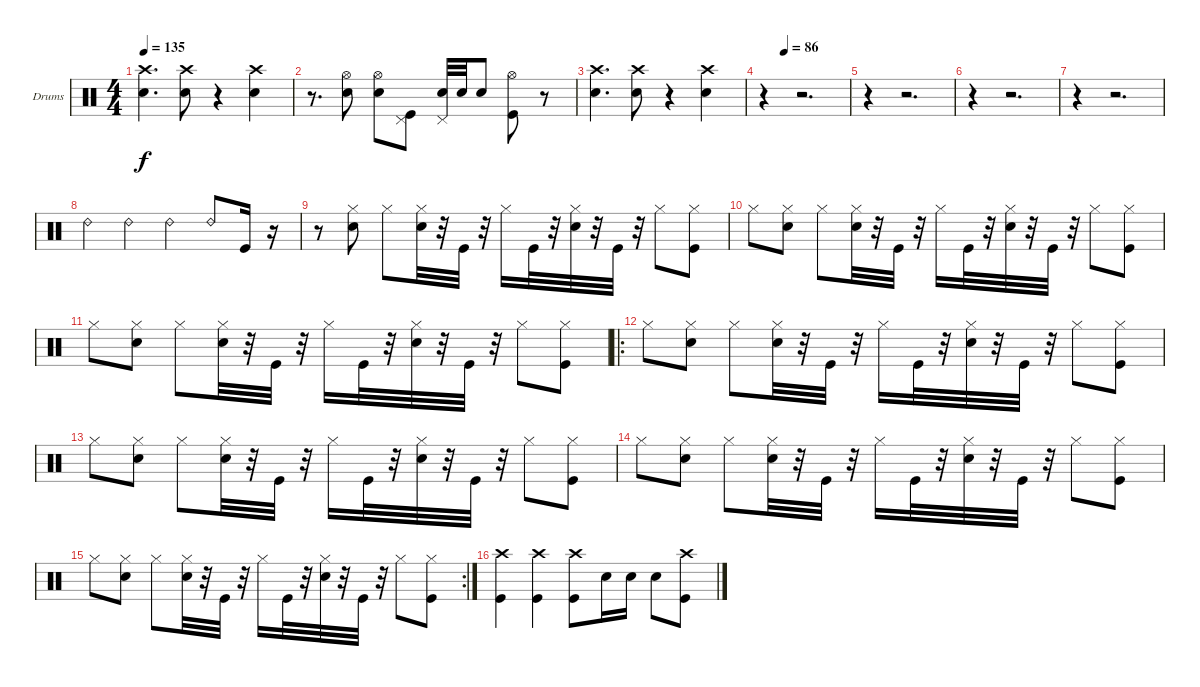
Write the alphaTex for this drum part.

\bracketExtendMode groupsimilarinstruments
\firstSystemTrackNameOrientation horizontal
\otherSystemsTrackNameOrientation horizontal
\track ("Drumkit" "Drums") {instrument percussion}
\staff {score}
\articulation defaults
\ts (4 4)
\tempo 135
\clef neutral
\ks c
("Crash high (hit)" "Snare (hit) 2").4{d dy f} ("Crash high (hit)" "Snare (hit) 2").8 r.4 ("Crash high (hit)" "Snare (hit) 2").4 |
r.8{d} ("Hi-Hat (open)" "Snare (hit) 2").8 ("Hi-Hat (open)" "Snare (hit) 2").8 ("Pedal Hi-Hat (hit)" "Kick (hit)").8 ("Pedal Hi-Hat (hit)" "Snare (hit) 2").32 "Snare (hit) 2".32 "Snare (hit) 2".8 ("Hi-Hat (open)" "Kick (hit)").8 r.8 |
("Crash high (hit)" "Snare (hit) 2").4{d} ("Crash high (hit)" "Snare (hit) 2").8 r.4 ("Crash high (hit)" "Snare (hit) 2").4 |
\tempo (86 0.25)
r.4 r.2{d} |
r.4 r.2{d} |
r.4 r.2{d} |
r.4 r.2{d} |
"Ride (bell) 2".4 "Ride (bell) 2".4 "Ride (bell) 2".4 "Ride (bell) 2".8 "Kick (hit)".16 r.16 |
r.8 ("Hi-Hat (closed)" "Snare (hit) 2").8 "Hi-Hat (closed)".8 ("Hi-Hat (closed)" "Snare (hit) 2").32 r.32 "Kick (hit)".32 r.32 "Hi-Hat (closed)".16 "Kick (hit)".32 r.32 ("Hi-Hat (closed)" "Snare (hit) 2").32 r.32 "Kick (hit)".32 r.32 "Hi-Hat (closed)".8 ("Hi-Hat (closed)" "Kick (hit)").8 |
"Hi-Hat (closed)".8 ("Hi-Hat (closed)" "Snare (hit) 2").8 "Hi-Hat (closed)".8 ("Hi-Hat (closed)" "Snare (hit) 2").32 r.32 "Kick (hit)".32 r.32 "Hi-Hat (closed)".16 "Kick (hit)".32 r.32 ("Hi-Hat (closed)" "Snare (hit) 2").32 r.32 "Kick (hit)".32 r.32 "Hi-Hat (closed)".8 ("Hi-Hat (closed)" "Kick (hit)").8 |
"Hi-Hat (closed)".8 ("Hi-Hat (closed)" "Snare (hit) 2").8 "Hi-Hat (closed)".8 ("Hi-Hat (closed)" "Snare (hit) 2").32 r.32 "Kick (hit)".32 r.32 "Hi-Hat (closed)".16 "Kick (hit)".32 r.32 ("Hi-Hat (closed)" "Snare (hit) 2").32 r.32 "Kick (hit)".32 r.32 "Hi-Hat (closed)".8 ("Hi-Hat (closed)" "Kick (hit)").8 |
\ro "Hi-Hat (closed)".8
("Hi-Hat (closed)" "Snare (hit) 2").8 "Hi-Hat (closed)".8 ("Hi-Hat (closed)" "Snare (hit) 2").32 r.32 "Kick (hit)".32 r.32 "Hi-Hat (closed)".16 "Kick (hit)".32 r.32 ("Hi-Hat (closed)" "Snare (hit) 2").32 r.32 "Kick (hit)".32 r.32 "Hi-Hat (closed)".8 ("Hi-Hat (closed)" "Kick (hit)").8 |
"Hi-Hat (closed)".8 ("Hi-Hat (closed)" "Snare (hit) 2").8 "Hi-Hat (closed)".8 ("Hi-Hat (closed)" "Snare (hit) 2").32 r.32 "Kick (hit)".32 r.32 "Hi-Hat (closed)".16 "Kick (hit)".32 r.32 ("Hi-Hat (closed)" "Snare (hit) 2").32 r.32 "Kick (hit)".32 r.32 "Hi-Hat (closed)".8 ("Hi-Hat (closed)" "Kick (hit)").8 |
"Hi-Hat (closed)".8 ("Hi-Hat (closed)" "Snare (hit) 2").8 "Hi-Hat (closed)".8 ("Hi-Hat (closed)" "Snare (hit) 2").32 r.32 "Kick (hit)".32 r.32 "Hi-Hat (closed)".16 "Kick (hit)".32 r.32 ("Hi-Hat (closed)" "Snare (hit) 2").32 r.32 "Kick (hit)".32 r.32 "Hi-Hat (closed)".8 ("Hi-Hat (closed)" "Kick (hit)").8 |
\rc 2 "Hi-Hat (closed)".8
("Hi-Hat (closed)" "Snare (hit) 2").8 "Hi-Hat (closed)".8 ("Hi-Hat (closed)" "Snare (hit) 2").32 r.32 "Kick (hit)".32 r.32 "Hi-Hat (closed)".16 "Kick (hit)".32 r.32 ("Hi-Hat (closed)" "Snare (hit) 2").32 r.32 "Kick (hit)".32 r.32 "Hi-Hat (closed)".8 ("Hi-Hat (closed)" "Kick (hit)").8 |
("Crash high (hit)" "Kick (hit)").4 ("Crash high (hit)" "Kick (hit)").4 ("Crash high (hit)" "Kick (hit)").8 "Snare (hit) 2".16 "Snare (hit) 2".16 "Snare (hit) 2".8 ("Crash high (hit)" "Kick (hit)").8
